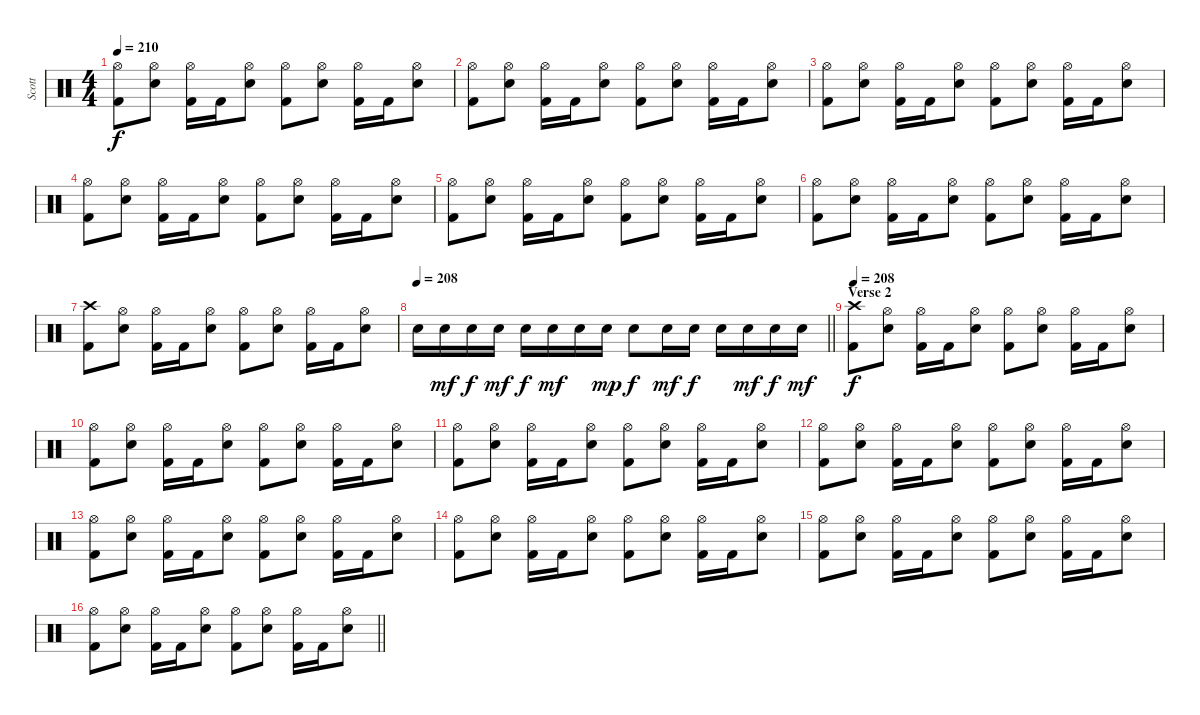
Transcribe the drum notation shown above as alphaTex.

\track ("Scott" "Scott") {instrument percussion}
\staff {score}
\articulation defaults
\ts (4 4)
\tempo 210
\clef neutral
\ks c
("Hi-Hat (open)" "Kick (hit) 2").8{dy f} ("Hi-Hat (open)" "Electric Snare (hit)").8 ("Hi-Hat (open)" "Kick (hit) 2").16 "Kick (hit) 2".16 ("Hi-Hat (open)" "Electric Snare (hit)").8 ("Hi-Hat (open)" "Kick (hit) 2").8 ("Hi-Hat (open)" "Electric Snare (hit)").8 ("Hi-Hat (open)" "Kick (hit) 2").16 "Kick (hit) 2".16 ("Hi-Hat (open)" "Electric Snare (hit)").8 |
("Hi-Hat (open)" "Kick (hit) 2").8 ("Hi-Hat (open)" "Electric Snare (hit)").8 ("Hi-Hat (open)" "Kick (hit) 2").16 "Kick (hit) 2".16 ("Hi-Hat (open)" "Electric Snare (hit)").8 ("Hi-Hat (open)" "Kick (hit) 2").8 ("Hi-Hat (open)" "Electric Snare (hit)").8 ("Hi-Hat (open)" "Kick (hit) 2").16 "Kick (hit) 2".16 ("Hi-Hat (open)" "Electric Snare (hit)").8 |
("Hi-Hat (open)" "Kick (hit) 2").8 ("Hi-Hat (open)" "Electric Snare (hit)").8 ("Hi-Hat (open)" "Kick (hit) 2").16 "Kick (hit) 2".16 ("Hi-Hat (open)" "Electric Snare (hit)").8 ("Hi-Hat (open)" "Kick (hit) 2").8 ("Hi-Hat (open)" "Electric Snare (hit)").8 ("Hi-Hat (open)" "Kick (hit) 2").16 "Kick (hit) 2".16 ("Hi-Hat (open)" "Electric Snare (hit)").8 |
("Hi-Hat (open)" "Kick (hit) 2").8 ("Hi-Hat (open)" "Electric Snare (hit)").8 ("Hi-Hat (open)" "Kick (hit) 2").16 "Kick (hit) 2".16 ("Hi-Hat (open)" "Electric Snare (hit)").8 ("Hi-Hat (open)" "Kick (hit) 2").8 ("Hi-Hat (open)" "Electric Snare (hit)").8 ("Hi-Hat (open)" "Kick (hit) 2").16 "Kick (hit) 2".16 ("Hi-Hat (open)" "Electric Snare (hit)").8 |
("Hi-Hat (open)" "Kick (hit) 2").8 ("Hi-Hat (open)" "Electric Snare (hit)").8 ("Hi-Hat (open)" "Kick (hit) 2").16 "Kick (hit) 2".16 ("Hi-Hat (open)" "Electric Snare (hit)").8 ("Hi-Hat (open)" "Kick (hit) 2").8 ("Hi-Hat (open)" "Electric Snare (hit)").8 ("Hi-Hat (open)" "Kick (hit) 2").16 "Kick (hit) 2".16 ("Hi-Hat (open)" "Electric Snare (hit)").8 |
("Hi-Hat (open)" "Kick (hit) 2").8 ("Hi-Hat (open)" "Electric Snare (hit)").8 ("Hi-Hat (open)" "Kick (hit) 2").16 "Kick (hit) 2".16 ("Hi-Hat (open)" "Electric Snare (hit)").8 ("Hi-Hat (open)" "Kick (hit) 2").8 ("Hi-Hat (open)" "Electric Snare (hit)").8 ("Hi-Hat (open)" "Kick (hit) 2").16 "Kick (hit) 2".16 ("Hi-Hat (open)" "Electric Snare (hit)").8 |
("Crash high (hit)" "Kick (hit) 2").8 ("Hi-Hat (open)" "Electric Snare (hit)").8 ("Hi-Hat (open)" "Kick (hit) 2").16 "Kick (hit) 2".16 ("Hi-Hat (open)" "Electric Snare (hit)").8 ("Hi-Hat (open)" "Kick (hit) 2").8 ("Hi-Hat (open)" "Electric Snare (hit)").8 ("Hi-Hat (open)" "Kick (hit) 2").16 "Kick (hit) 2".16 ("Hi-Hat (open)" "Electric Snare (hit)").8 |
\tempo 208
\barLineRight lightlight "Electric Snare (hit)".16 "Electric Snare (hit)".16{dy mf} "Electric Snare (hit)".16{dy f} "Electric Snare (hit)".16{dy mf} "Electric Snare (hit)".16{dy f} "Electric Snare (hit)".16{dy mf} "Electric Snare (hit)".16 "Electric Snare (hit)".16{dy mp} "Electric Snare (hit)".8{dy f} "Electric Snare (hit)".16{dy mf} "Electric Snare (hit)".16{dy f} "Electric Snare (hit)".16 "Electric Snare (hit)".16{dy mf} "Electric Snare (hit)".16{dy f} "Electric Snare (hit)".16{dy mf}
|
\section ("" "Verse 2")
\tempo 208
("Crash high (hit)" "Kick (hit) 2").8{dy f} ("Hi-Hat (open)" "Electric Snare (hit)").8 ("Hi-Hat (open)" "Kick (hit) 2").16 "Kick (hit) 2".16 ("Hi-Hat (open)" "Electric Snare (hit)").8 ("Hi-Hat (open)" "Kick (hit) 2").8 ("Hi-Hat (open)" "Electric Snare (hit)").8 ("Hi-Hat (open)" "Kick (hit) 2").16 "Kick (hit) 2".16 ("Hi-Hat (open)" "Electric Snare (hit)").8 |
("Hi-Hat (open)" "Kick (hit) 2").8 ("Hi-Hat (open)" "Electric Snare (hit)").8 ("Hi-Hat (open)" "Kick (hit) 2").16 "Kick (hit) 2".16 ("Hi-Hat (open)" "Electric Snare (hit)").8 ("Hi-Hat (open)" "Kick (hit) 2").8 ("Hi-Hat (open)" "Electric Snare (hit)").8 ("Hi-Hat (open)" "Kick (hit) 2").16 "Kick (hit) 2".16 ("Hi-Hat (open)" "Electric Snare (hit)").8 |
("Hi-Hat (open)" "Kick (hit) 2").8 ("Hi-Hat (open)" "Electric Snare (hit)").8 ("Hi-Hat (open)" "Kick (hit) 2").16 "Kick (hit) 2".16 ("Hi-Hat (open)" "Electric Snare (hit)").8 ("Hi-Hat (open)" "Kick (hit) 2").8 ("Hi-Hat (open)" "Electric Snare (hit)").8 ("Hi-Hat (open)" "Kick (hit) 2").16 "Kick (hit) 2".16 ("Hi-Hat (open)" "Electric Snare (hit)").8 |
("Hi-Hat (open)" "Kick (hit) 2").8 ("Hi-Hat (open)" "Electric Snare (hit)").8 ("Hi-Hat (open)" "Kick (hit) 2").16 "Kick (hit) 2".16 ("Hi-Hat (open)" "Electric Snare (hit)").8 ("Hi-Hat (open)" "Kick (hit) 2").8 ("Hi-Hat (open)" "Electric Snare (hit)").8 ("Hi-Hat (open)" "Kick (hit) 2").16 "Kick (hit) 2".16 ("Hi-Hat (open)" "Electric Snare (hit)").8 |
("Hi-Hat (open)" "Kick (hit) 2").8 ("Hi-Hat (open)" "Electric Snare (hit)").8 ("Hi-Hat (open)" "Kick (hit) 2").16 "Kick (hit) 2".16 ("Hi-Hat (open)" "Electric Snare (hit)").8 ("Hi-Hat (open)" "Kick (hit) 2").8 ("Hi-Hat (open)" "Electric Snare (hit)").8 ("Hi-Hat (open)" "Kick (hit) 2").16 "Kick (hit) 2".16 ("Hi-Hat (open)" "Electric Snare (hit)").8 |
("Hi-Hat (open)" "Kick (hit) 2").8 ("Hi-Hat (open)" "Electric Snare (hit)").8 ("Hi-Hat (open)" "Kick (hit) 2").16 "Kick (hit) 2".16 ("Hi-Hat (open)" "Electric Snare (hit)").8 ("Hi-Hat (open)" "Kick (hit) 2").8 ("Hi-Hat (open)" "Electric Snare (hit)").8 ("Hi-Hat (open)" "Kick (hit) 2").16 "Kick (hit) 2".16 ("Hi-Hat (open)" "Electric Snare (hit)").8 |
("Hi-Hat (open)" "Kick (hit) 2").8 ("Hi-Hat (open)" "Electric Snare (hit)").8 ("Hi-Hat (open)" "Kick (hit) 2").16 "Kick (hit) 2".16 ("Hi-Hat (open)" "Electric Snare (hit)").8 ("Hi-Hat (open)" "Kick (hit) 2").8 ("Hi-Hat (open)" "Electric Snare (hit)").8 ("Hi-Hat (open)" "Kick (hit) 2").16 "Kick (hit) 2".16 ("Hi-Hat (open)" "Electric Snare (hit)").8 |
\barLineRight lightlight
("Hi-Hat (open)" "Kick (hit) 2").8 ("Hi-Hat (open)" "Electric Snare (hit)").8 ("Hi-Hat (open)" "Kick (hit) 2").16 "Kick (hit) 2".16 ("Hi-Hat (open)" "Electric Snare (hit)").8 ("Hi-Hat (open)" "Kick (hit) 2").8 ("Hi-Hat (open)" "Electric Snare (hit)").8 ("Hi-Hat (open)" "Kick (hit) 2").16 "Kick (hit) 2".16 ("Hi-Hat (open)" "Electric Snare (hit)").8
